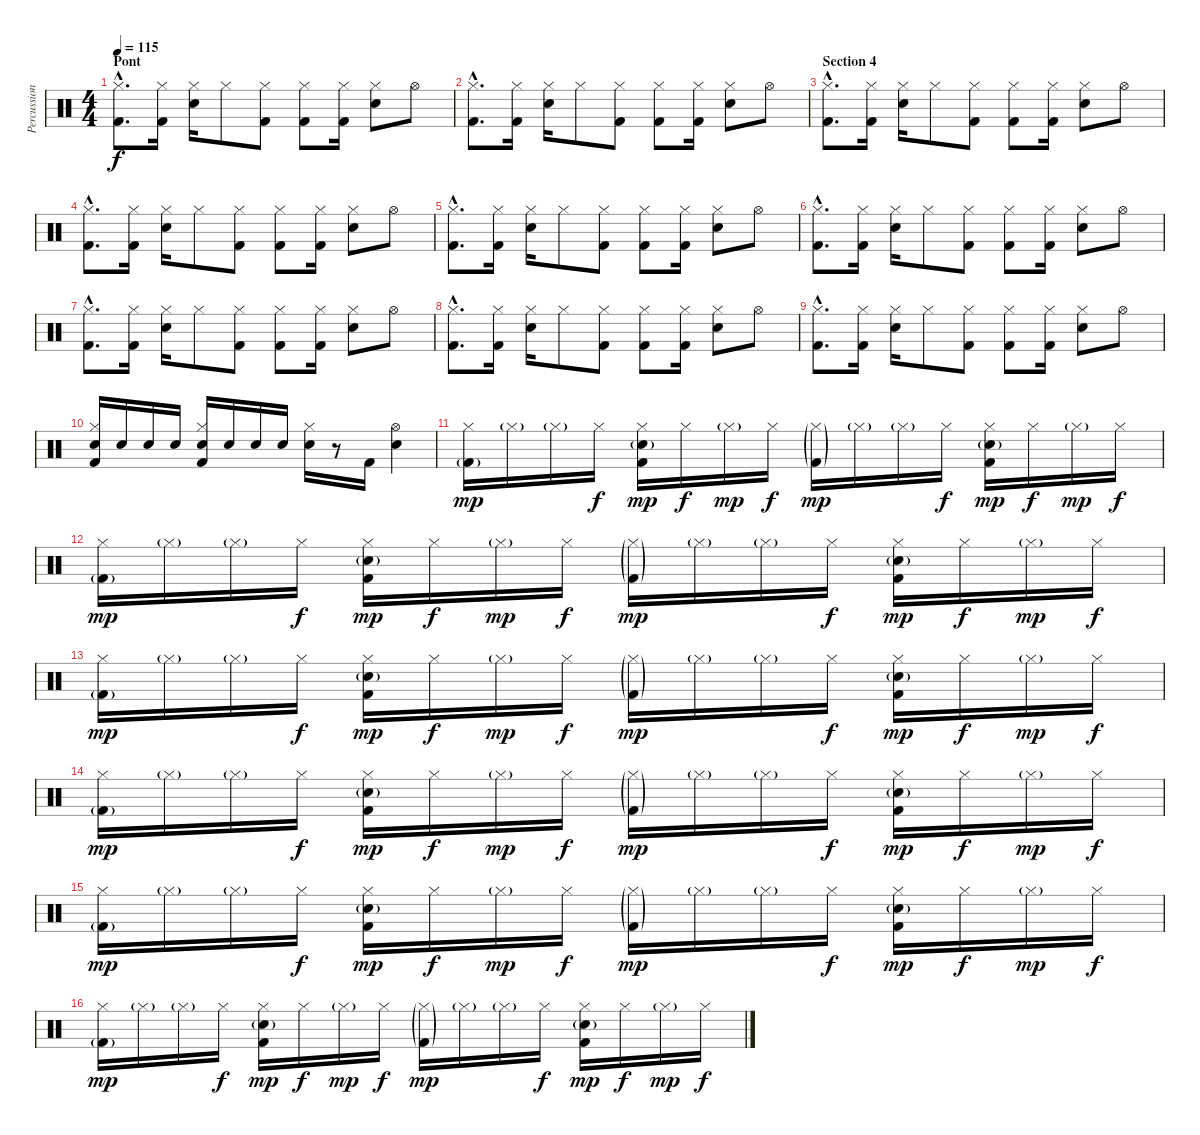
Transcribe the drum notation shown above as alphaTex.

\track ("Percussions" "Percussion") {instrument percussion}
\staff {score}
\articulation defaults
\ts (4 4)
\section ("" "Pont")
\tempo 115
\clef neutral
\ks c
("Kick (hit) 2"{hac} "Hi-Hat (closed)"{hac}).8{d dy f} ("Kick (hit) 2" "Hi-Hat (closed)").16 ("Hi-Hat (closed)" "Snare (hit) 2").16 "Hi-Hat (closed)".8 ("Kick (hit) 2" "Hi-Hat (closed)").8 ("Kick (hit) 2" "Hi-Hat (closed)").8 ("Kick (hit) 2" "Hi-Hat (closed)").16 ("Hi-Hat (closed)" "Snare (hit) 2").8 "Hi-Hat (open)".8 |
("Kick (hit) 2"{hac} "Hi-Hat (closed)"{hac}).8{d} ("Kick (hit) 2" "Hi-Hat (closed)").16 ("Hi-Hat (closed)" "Snare (hit) 2").16 "Hi-Hat (closed)".8 ("Kick (hit) 2" "Hi-Hat (closed)").8 ("Kick (hit) 2" "Hi-Hat (closed)").8 ("Kick (hit) 2" "Hi-Hat (closed)").16 ("Hi-Hat (closed)" "Snare (hit) 2").8 "Hi-Hat (open)".8 |
\section ("" "Section 4")
("Kick (hit) 2"{hac} "Hi-Hat (closed)"{hac}).8{d} ("Kick (hit) 2" "Hi-Hat (closed)").16 ("Hi-Hat (closed)" "Snare (hit) 2").16 "Hi-Hat (closed)".8 ("Kick (hit) 2" "Hi-Hat (closed)").8 ("Kick (hit) 2" "Hi-Hat (closed)").8 ("Kick (hit) 2" "Hi-Hat (closed)").16 ("Hi-Hat (closed)" "Snare (hit) 2").8 "Hi-Hat (open)".8 |
("Kick (hit) 2"{hac} "Hi-Hat (closed)"{hac}).8{d} ("Kick (hit) 2" "Hi-Hat (closed)").16 ("Hi-Hat (closed)" "Snare (hit) 2").16 "Hi-Hat (closed)".8 ("Kick (hit) 2" "Hi-Hat (closed)").8 ("Kick (hit) 2" "Hi-Hat (closed)").8 ("Kick (hit) 2" "Hi-Hat (closed)").16 ("Hi-Hat (closed)" "Snare (hit) 2").8 "Hi-Hat (open)".8 |
("Kick (hit) 2"{hac} "Hi-Hat (closed)"{hac}).8{d} ("Kick (hit) 2" "Hi-Hat (closed)").16 ("Hi-Hat (closed)" "Snare (hit) 2").16 "Hi-Hat (closed)".8 ("Kick (hit) 2" "Hi-Hat (closed)").8 ("Kick (hit) 2" "Hi-Hat (closed)").8 ("Kick (hit) 2" "Hi-Hat (closed)").16 ("Hi-Hat (closed)" "Snare (hit) 2").8 "Hi-Hat (open)".8 |
("Kick (hit) 2"{hac} "Hi-Hat (closed)"{hac}).8{d} ("Kick (hit) 2" "Hi-Hat (closed)").16 ("Hi-Hat (closed)" "Snare (hit) 2").16 "Hi-Hat (closed)".8 ("Kick (hit) 2" "Hi-Hat (closed)").8 ("Kick (hit) 2" "Hi-Hat (closed)").8 ("Kick (hit) 2" "Hi-Hat (closed)").16 ("Hi-Hat (closed)" "Snare (hit) 2").8 "Hi-Hat (open)".8 |
("Kick (hit) 2"{hac} "Hi-Hat (closed)"{hac}).8{d} ("Kick (hit) 2" "Hi-Hat (closed)").16 ("Hi-Hat (closed)" "Snare (hit) 2").16 "Hi-Hat (closed)".8 ("Kick (hit) 2" "Hi-Hat (closed)").8 ("Kick (hit) 2" "Hi-Hat (closed)").8 ("Kick (hit) 2" "Hi-Hat (closed)").16 ("Hi-Hat (closed)" "Snare (hit) 2").8 "Hi-Hat (open)".8 |
("Kick (hit) 2"{hac} "Hi-Hat (closed)"{hac}).8{d} ("Kick (hit) 2" "Hi-Hat (closed)").16 ("Hi-Hat (closed)" "Snare (hit) 2").16 "Hi-Hat (closed)".8 ("Kick (hit) 2" "Hi-Hat (closed)").8 ("Kick (hit) 2" "Hi-Hat (closed)").8 ("Kick (hit) 2" "Hi-Hat (closed)").16 ("Hi-Hat (closed)" "Snare (hit) 2").8 "Hi-Hat (open)".8 |
("Kick (hit) 2"{hac} "Hi-Hat (closed)"{hac}).8{d} ("Kick (hit) 2" "Hi-Hat (closed)").16 ("Hi-Hat (closed)" "Snare (hit) 2").16 "Hi-Hat (closed)".8 ("Kick (hit) 2" "Hi-Hat (closed)").8 ("Kick (hit) 2" "Hi-Hat (closed)").8 ("Kick (hit) 2" "Hi-Hat (closed)").16 ("Hi-Hat (closed)" "Snare (hit) 2").8 "Hi-Hat (open)".8 |
("Kick (hit) 2" "Snare (hit) 2" "Hi-Hat (closed)").16 "Snare (hit) 2".16 "Snare (hit) 2".16 "Snare (hit) 2".16 ("Kick (hit) 2" "Snare (hit) 2" "Hi-Hat (closed)").16 "Snare (hit) 2".16 "Snare (hit) 2".16 "Snare (hit) 2".16 ("Snare (hit) 2" "Hi-Hat (closed)").16 r.8 "Kick (hit) 2".16 ("Snare (hit) 2" "Hi-Hat (open)").4 |
\section ("" "")
("Kick (hit) 2"{g} "Hi-Hat (closed)").16{dy mp} "Hi-Hat (closed)"{g}.16 "Hi-Hat (closed)"{g}.16 "Hi-Hat (closed)".16{dy f} ("Kick (hit) 2" "Hi-Hat (closed)" "Snare (hit) 2"{g}).16{dy mp} "Hi-Hat (closed)".16{dy f} "Hi-Hat (closed)"{g}.16{dy mp} "Hi-Hat (closed)".16{dy f} ("Kick (hit) 2"{g} "Hi-Hat (closed)"{g}).16{dy mp} "Hi-Hat (closed)"{g}.16 "Hi-Hat (closed)"{g}.16 "Hi-Hat (closed)".16{dy f} ("Kick (hit) 2" "Hi-Hat (closed)" "Snare (hit) 2"{g}).16{dy mp} "Hi-Hat (closed)".16{dy f} "Hi-Hat (closed)"{g}.16{dy mp} "Hi-Hat (closed)".16{dy f} |
("Kick (hit) 2"{g} "Hi-Hat (closed)").16{dy mp} "Hi-Hat (closed)"{g}.16 "Hi-Hat (closed)"{g}.16 "Hi-Hat (closed)".16{dy f} ("Kick (hit) 2" "Hi-Hat (closed)" "Snare (hit) 2"{g}).16{dy mp} "Hi-Hat (closed)".16{dy f} "Hi-Hat (closed)"{g}.16{dy mp} "Hi-Hat (closed)".16{dy f} ("Kick (hit) 2"{g} "Hi-Hat (closed)"{g}).16{dy mp} "Hi-Hat (closed)"{g}.16 "Hi-Hat (closed)"{g}.16 "Hi-Hat (closed)".16{dy f} ("Kick (hit) 2" "Hi-Hat (closed)" "Snare (hit) 2"{g}).16{dy mp} "Hi-Hat (closed)".16{dy f} "Hi-Hat (closed)"{g}.16{dy mp} "Hi-Hat (closed)".16{dy f} |
("Kick (hit) 2"{g} "Hi-Hat (closed)").16{dy mp} "Hi-Hat (closed)"{g}.16 "Hi-Hat (closed)"{g}.16 "Hi-Hat (closed)".16{dy f} ("Kick (hit) 2" "Hi-Hat (closed)" "Snare (hit) 2"{g}).16{dy mp} "Hi-Hat (closed)".16{dy f} "Hi-Hat (closed)"{g}.16{dy mp} "Hi-Hat (closed)".16{dy f} ("Kick (hit) 2"{g} "Hi-Hat (closed)"{g}).16{dy mp} "Hi-Hat (closed)"{g}.16 "Hi-Hat (closed)"{g}.16 "Hi-Hat (closed)".16{dy f} ("Kick (hit) 2" "Hi-Hat (closed)" "Snare (hit) 2"{g}).16{dy mp} "Hi-Hat (closed)".16{dy f} "Hi-Hat (closed)"{g}.16{dy mp} "Hi-Hat (closed)".16{dy f} |
("Kick (hit) 2"{g} "Hi-Hat (closed)").16{dy mp} "Hi-Hat (closed)"{g}.16 "Hi-Hat (closed)"{g}.16 "Hi-Hat (closed)".16{dy f} ("Kick (hit) 2" "Hi-Hat (closed)" "Snare (hit) 2"{g}).16{dy mp} "Hi-Hat (closed)".16{dy f} "Hi-Hat (closed)"{g}.16{dy mp} "Hi-Hat (closed)".16{dy f} ("Kick (hit) 2"{g} "Hi-Hat (closed)"{g}).16{dy mp} "Hi-Hat (closed)"{g}.16 "Hi-Hat (closed)"{g}.16 "Hi-Hat (closed)".16{dy f} ("Kick (hit) 2" "Hi-Hat (closed)" "Snare (hit) 2"{g}).16{dy mp} "Hi-Hat (closed)".16{dy f} "Hi-Hat (closed)"{g}.16{dy mp} "Hi-Hat (closed)".16{dy f} |
("Kick (hit) 2"{g} "Hi-Hat (closed)").16{dy mp} "Hi-Hat (closed)"{g}.16 "Hi-Hat (closed)"{g}.16 "Hi-Hat (closed)".16{dy f} ("Kick (hit) 2" "Hi-Hat (closed)" "Snare (hit) 2"{g}).16{dy mp} "Hi-Hat (closed)".16{dy f} "Hi-Hat (closed)"{g}.16{dy mp} "Hi-Hat (closed)".16{dy f} ("Kick (hit) 2"{g} "Hi-Hat (closed)"{g}).16{dy mp} "Hi-Hat (closed)"{g}.16 "Hi-Hat (closed)"{g}.16 "Hi-Hat (closed)".16{dy f} ("Kick (hit) 2" "Hi-Hat (closed)" "Snare (hit) 2"{g}).16{dy mp} "Hi-Hat (closed)".16{dy f} "Hi-Hat (closed)"{g}.16{dy mp} "Hi-Hat (closed)".16{dy f} |
("Kick (hit) 2"{g} "Hi-Hat (closed)").16{dy mp} "Hi-Hat (closed)"{g}.16 "Hi-Hat (closed)"{g}.16 "Hi-Hat (closed)".16{dy f} ("Kick (hit) 2" "Hi-Hat (closed)" "Snare (hit) 2"{g}).16{dy mp} "Hi-Hat (closed)".16{dy f} "Hi-Hat (closed)"{g}.16{dy mp} "Hi-Hat (closed)".16{dy f} ("Kick (hit) 2"{g} "Hi-Hat (closed)"{g}).16{dy mp} "Hi-Hat (closed)"{g}.16 "Hi-Hat (closed)"{g}.16 "Hi-Hat (closed)".16{dy f} ("Kick (hit) 2" "Hi-Hat (closed)" "Snare (hit) 2"{g}).16{dy mp} "Hi-Hat (closed)".16{dy f} "Hi-Hat (closed)"{g}.16{dy mp} "Hi-Hat (closed)".16{dy f}
